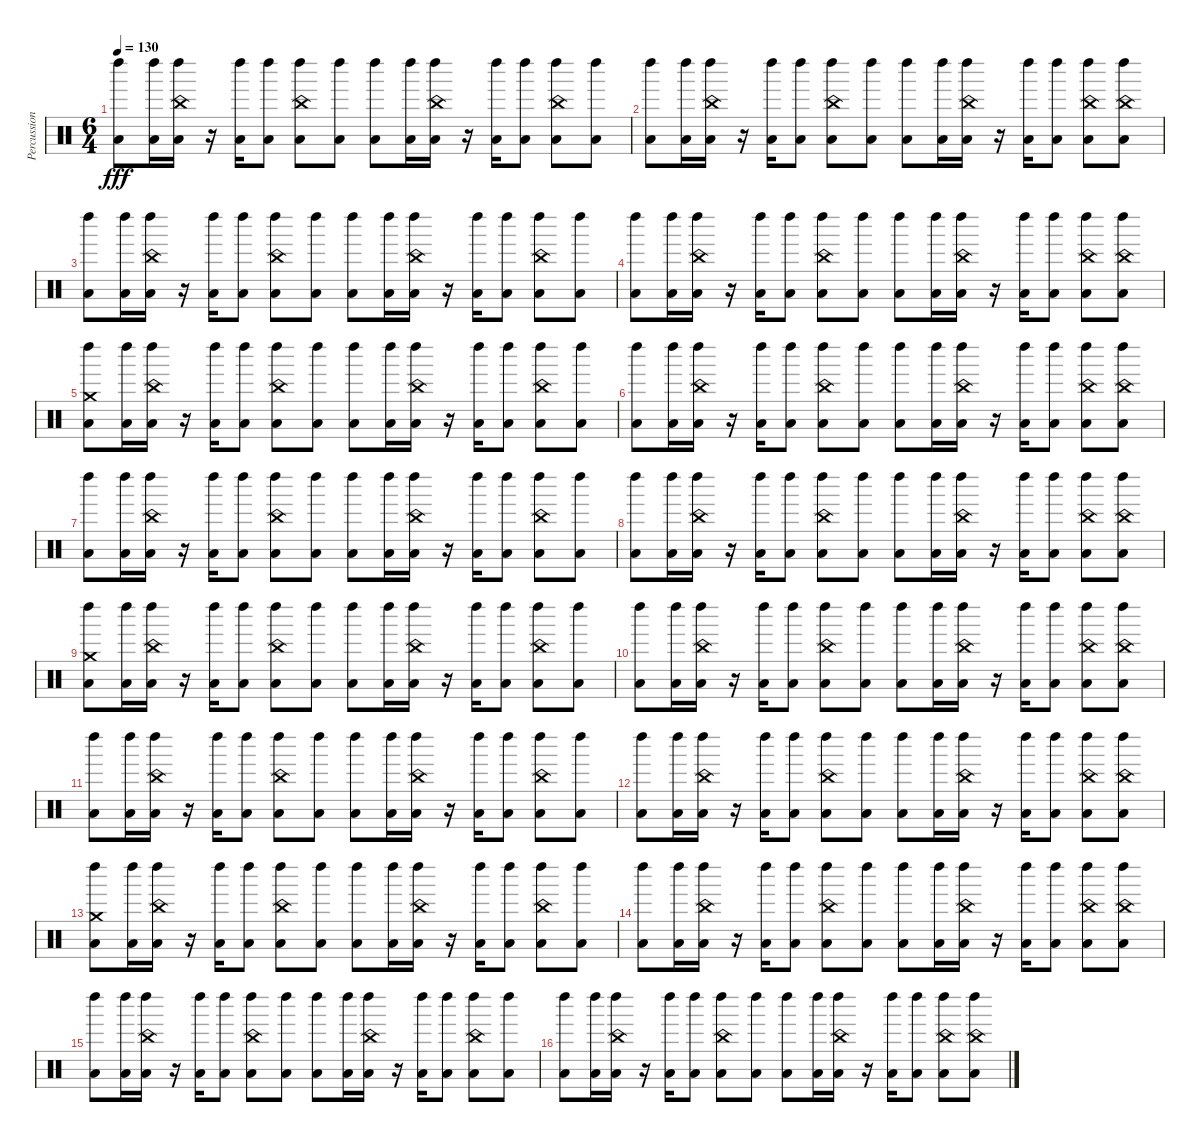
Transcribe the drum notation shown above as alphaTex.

\track ("Percussion" "Percussion") {instrument percussion}
\staff {score}
\articulation defaults
\ts (6 4)
\tempo 130
\clef neutral
\ks c
("Left Maraca (hit)" "Low Floor Tom (hit)").8{dy fff} ("Left Maraca (hit)" "Low Tom (hit)").16 ("Left Maraca (hit)" "China (hit)" "Low Tom (hit)").16 r.16 ("Left Maraca (hit)" "Low Floor Tom (hit)").16 ("Left Maraca (hit)" "Low Floor Tom (hit)").8 ("Left Maraca (hit)" "China (hit)" "Low Tom (hit)").8 ("Left Maraca (hit)" "Low Tom (hit)").8 ("Left Maraca (hit)" "Low Floor Tom (hit)").8 ("Left Maraca (hit)" "Low Tom (hit)").16 ("Left Maraca (hit)" "China (hit)" "Low Tom (hit)").16 r.16 ("Left Maraca (hit)" "Low Floor Tom (hit)").16 ("Left Maraca (hit)" "Low Floor Tom (hit)").8 ("Left Maraca (hit)" "China (hit)" "Low Tom (hit)").8 ("Left Maraca (hit)" "Low Tom (hit)").8 |
("Left Maraca (hit)" "Low Floor Tom (hit)").8 ("Left Maraca (hit)" "Low Tom (hit)").16 ("Left Maraca (hit)" "China (hit)" "Low Tom (hit)").16 r.16 ("Left Maraca (hit)" "Low Floor Tom (hit)").16 ("Left Maraca (hit)" "Low Floor Tom (hit)").8 ("Left Maraca (hit)" "China (hit)" "Low Tom (hit)").8 ("Left Maraca (hit)" "Low Tom (hit)").8 ("Left Maraca (hit)" "Low Floor Tom (hit)").8 ("Left Maraca (hit)" "Low Tom (hit)").16 ("Left Maraca (hit)" "China (hit)" "Low Tom (hit)").16 r.16 ("Left Maraca (hit)" "Low Floor Tom (hit)").16 ("Left Maraca (hit)" "Low Floor Tom (hit)").8 ("Left Maraca (hit)" "China (hit)" "Low Tom (hit)").8 ("Left Maraca (hit)" "China (hit)" "Low Tom (hit)").8 |
("Left Maraca (hit)" "Low Floor Tom (hit)").8 ("Left Maraca (hit)" "Low Tom (hit)").16 ("Left Maraca (hit)" "China (hit)" "Low Tom (hit)").16 r.16 ("Left Maraca (hit)" "Low Floor Tom (hit)").16 ("Left Maraca (hit)" "Low Floor Tom (hit)").8 ("Left Maraca (hit)" "China (hit)" "Low Tom (hit)").8 ("Left Maraca (hit)" "Low Tom (hit)").8 ("Left Maraca (hit)" "Low Floor Tom (hit)").8 ("Left Maraca (hit)" "Low Tom (hit)").16 ("Left Maraca (hit)" "China (hit)" "Low Tom (hit)").16 r.16 ("Left Maraca (hit)" "Low Floor Tom (hit)").16 ("Left Maraca (hit)" "Low Floor Tom (hit)").8 ("Left Maraca (hit)" "China (hit)" "Low Tom (hit)").8 ("Left Maraca (hit)" "Low Tom (hit)").8 |
("Left Maraca (hit)" "Low Floor Tom (hit)").8 ("Left Maraca (hit)" "Low Tom (hit)").16 ("Left Maraca (hit)" "China (hit)" "Low Tom (hit)").16 r.16 ("Left Maraca (hit)" "Low Floor Tom (hit)").16 ("Left Maraca (hit)" "Low Floor Tom (hit)").8 ("Left Maraca (hit)" "China (hit)" "Low Tom (hit)").8 ("Left Maraca (hit)" "Low Tom (hit)").8 ("Left Maraca (hit)" "Low Floor Tom (hit)").8 ("Left Maraca (hit)" "Low Tom (hit)").16 ("Left Maraca (hit)" "China (hit)" "Low Tom (hit)").16 r.16 ("Left Maraca (hit)" "Low Floor Tom (hit)").16 ("Left Maraca (hit)" "Low Floor Tom (hit)").8 ("Left Maraca (hit)" "China (hit)" "Low Tom (hit)").8 ("Left Maraca (hit)" "China (hit)" "Low Tom (hit)").8 |
("Left Maraca (hit)" "Crash medium (hit)" "Low Floor Tom (hit)").8 ("Left Maraca (hit)" "Low Tom (hit)").16 ("Left Maraca (hit)" "China (hit)" "Low Tom (hit)").16 r.16 ("Left Maraca (hit)" "Low Floor Tom (hit)").16 ("Left Maraca (hit)" "Low Floor Tom (hit)").8 ("Left Maraca (hit)" "China (hit)" "Low Tom (hit)").8 ("Left Maraca (hit)" "Low Tom (hit)").8 ("Left Maraca (hit)" "Low Floor Tom (hit)").8 ("Left Maraca (hit)" "Low Tom (hit)").16 ("Left Maraca (hit)" "China (hit)" "Low Tom (hit)").16 r.16 ("Left Maraca (hit)" "Low Floor Tom (hit)").16 ("Left Maraca (hit)" "Low Floor Tom (hit)").8 ("Left Maraca (hit)" "China (hit)" "Low Tom (hit)").8 ("Left Maraca (hit)" "Low Tom (hit)").8 |
("Left Maraca (hit)" "Low Floor Tom (hit)").8 ("Left Maraca (hit)" "Low Tom (hit)").16 ("Left Maraca (hit)" "China (hit)" "Low Tom (hit)").16 r.16 ("Left Maraca (hit)" "Low Floor Tom (hit)").16 ("Left Maraca (hit)" "Low Floor Tom (hit)").8 ("Left Maraca (hit)" "China (hit)" "Low Tom (hit)").8 ("Left Maraca (hit)" "Low Tom (hit)").8 ("Left Maraca (hit)" "Low Floor Tom (hit)").8 ("Left Maraca (hit)" "Low Tom (hit)").16 ("Left Maraca (hit)" "China (hit)" "Low Tom (hit)").16 r.16 ("Left Maraca (hit)" "Low Floor Tom (hit)").16 ("Left Maraca (hit)" "Low Floor Tom (hit)").8 ("Left Maraca (hit)" "China (hit)" "Low Tom (hit)").8 ("Left Maraca (hit)" "China (hit)" "Low Tom (hit)").8 |
("Left Maraca (hit)" "Low Floor Tom (hit)").8 ("Left Maraca (hit)" "Low Tom (hit)").16 ("Left Maraca (hit)" "China (hit)" "Low Tom (hit)").16 r.16 ("Left Maraca (hit)" "Low Floor Tom (hit)").16 ("Left Maraca (hit)" "Low Floor Tom (hit)").8 ("Left Maraca (hit)" "China (hit)" "Low Tom (hit)").8 ("Left Maraca (hit)" "Low Tom (hit)").8 ("Left Maraca (hit)" "Low Floor Tom (hit)").8 ("Left Maraca (hit)" "Low Tom (hit)").16 ("Left Maraca (hit)" "China (hit)" "Low Tom (hit)").16 r.16 ("Left Maraca (hit)" "Low Floor Tom (hit)").16 ("Left Maraca (hit)" "Low Floor Tom (hit)").8 ("Left Maraca (hit)" "China (hit)" "Low Tom (hit)").8 ("Left Maraca (hit)" "Low Tom (hit)").8 |
("Left Maraca (hit)" "Low Floor Tom (hit)").8 ("Left Maraca (hit)" "Low Tom (hit)").16 ("Left Maraca (hit)" "China (hit)" "Low Tom (hit)").16 r.16 ("Left Maraca (hit)" "Low Floor Tom (hit)").16 ("Left Maraca (hit)" "Low Floor Tom (hit)").8 ("Left Maraca (hit)" "China (hit)" "Low Tom (hit)").8 ("Left Maraca (hit)" "Low Tom (hit)").8 ("Left Maraca (hit)" "Low Floor Tom (hit)").8 ("Left Maraca (hit)" "Low Tom (hit)").16 ("Left Maraca (hit)" "China (hit)" "Low Tom (hit)").16 r.16 ("Left Maraca (hit)" "Low Floor Tom (hit)").16 ("Left Maraca (hit)" "Low Floor Tom (hit)").8 ("Left Maraca (hit)" "China (hit)" "Low Tom (hit)").8 ("Left Maraca (hit)" "China (hit)" "Low Tom (hit)").8 |
("Left Maraca (hit)" "Crash medium (hit)" "Low Floor Tom (hit)").8 ("Left Maraca (hit)" "Low Tom (hit)").16 ("Left Maraca (hit)" "China (hit)" "Low Tom (hit)").16 r.16 ("Left Maraca (hit)" "Low Floor Tom (hit)").16 ("Left Maraca (hit)" "Low Floor Tom (hit)").8 ("Left Maraca (hit)" "China (hit)" "Low Tom (hit)").8 ("Left Maraca (hit)" "Low Tom (hit)").8 ("Left Maraca (hit)" "Low Floor Tom (hit)").8 ("Left Maraca (hit)" "Low Tom (hit)").16 ("Left Maraca (hit)" "China (hit)" "Low Tom (hit)").16 r.16 ("Left Maraca (hit)" "Low Floor Tom (hit)").16 ("Left Maraca (hit)" "Low Floor Tom (hit)").8 ("Left Maraca (hit)" "China (hit)" "Low Tom (hit)").8 ("Left Maraca (hit)" "Low Tom (hit)").8 |
("Left Maraca (hit)" "Low Floor Tom (hit)").8 ("Left Maraca (hit)" "Low Tom (hit)").16 ("Left Maraca (hit)" "China (hit)" "Low Tom (hit)").16 r.16 ("Left Maraca (hit)" "Low Floor Tom (hit)").16 ("Left Maraca (hit)" "Low Floor Tom (hit)").8 ("Left Maraca (hit)" "China (hit)" "Low Tom (hit)").8 ("Left Maraca (hit)" "Low Tom (hit)").8 ("Left Maraca (hit)" "Low Floor Tom (hit)").8 ("Left Maraca (hit)" "Low Tom (hit)").16 ("Left Maraca (hit)" "China (hit)" "Low Tom (hit)").16 r.16 ("Left Maraca (hit)" "Low Floor Tom (hit)").16 ("Left Maraca (hit)" "Low Floor Tom (hit)").8 ("Left Maraca (hit)" "China (hit)" "Low Tom (hit)").8 ("Left Maraca (hit)" "China (hit)" "Low Tom (hit)").8 |
("Left Maraca (hit)" "Low Floor Tom (hit)").8 ("Left Maraca (hit)" "Low Tom (hit)").16 ("Left Maraca (hit)" "China (hit)" "Low Tom (hit)").16 r.16 ("Left Maraca (hit)" "Low Floor Tom (hit)").16 ("Left Maraca (hit)" "Low Floor Tom (hit)").8 ("Left Maraca (hit)" "China (hit)" "Low Tom (hit)").8 ("Left Maraca (hit)" "Low Tom (hit)").8 ("Left Maraca (hit)" "Low Floor Tom (hit)").8 ("Left Maraca (hit)" "Low Tom (hit)").16 ("Left Maraca (hit)" "China (hit)" "Low Tom (hit)").16 r.16 ("Left Maraca (hit)" "Low Floor Tom (hit)").16 ("Left Maraca (hit)" "Low Floor Tom (hit)").8 ("Left Maraca (hit)" "China (hit)" "Low Tom (hit)").8 ("Left Maraca (hit)" "Low Tom (hit)").8 |
("Left Maraca (hit)" "Low Floor Tom (hit)").8 ("Left Maraca (hit)" "Low Tom (hit)").16 ("Left Maraca (hit)" "China (hit)" "Low Tom (hit)").16 r.16 ("Left Maraca (hit)" "Low Floor Tom (hit)").16 ("Left Maraca (hit)" "Low Floor Tom (hit)").8 ("Left Maraca (hit)" "China (hit)" "Low Tom (hit)").8 ("Left Maraca (hit)" "Low Tom (hit)").8 ("Left Maraca (hit)" "Low Floor Tom (hit)").8 ("Left Maraca (hit)" "Low Tom (hit)").16 ("Left Maraca (hit)" "China (hit)" "Low Tom (hit)").16 r.16 ("Left Maraca (hit)" "Low Floor Tom (hit)").16 ("Left Maraca (hit)" "Low Floor Tom (hit)").8 ("Left Maraca (hit)" "China (hit)" "Low Tom (hit)").8 ("Left Maraca (hit)" "China (hit)" "Low Tom (hit)").8 |
("Left Maraca (hit)" "Crash medium (hit)" "Low Floor Tom (hit)").8 ("Left Maraca (hit)" "Low Tom (hit)").16 ("Left Maraca (hit)" "China (hit)" "Low Tom (hit)").16 r.16 ("Left Maraca (hit)" "Low Floor Tom (hit)").16 ("Left Maraca (hit)" "Low Floor Tom (hit)").8 ("Left Maraca (hit)" "China (hit)" "Low Tom (hit)").8 ("Left Maraca (hit)" "Low Tom (hit)").8 ("Left Maraca (hit)" "Low Floor Tom (hit)").8 ("Left Maraca (hit)" "Low Tom (hit)").16 ("Left Maraca (hit)" "China (hit)" "Low Tom (hit)").16 r.16 ("Left Maraca (hit)" "Low Floor Tom (hit)").16 ("Left Maraca (hit)" "Low Floor Tom (hit)").8 ("Left Maraca (hit)" "China (hit)" "Low Tom (hit)").8 ("Left Maraca (hit)" "Low Tom (hit)").8 |
("Left Maraca (hit)" "Low Floor Tom (hit)").8 ("Left Maraca (hit)" "Low Tom (hit)").16 ("Left Maraca (hit)" "China (hit)" "Low Tom (hit)").16 r.16 ("Left Maraca (hit)" "Low Floor Tom (hit)").16 ("Left Maraca (hit)" "Low Floor Tom (hit)").8 ("Left Maraca (hit)" "China (hit)" "Low Tom (hit)").8 ("Left Maraca (hit)" "Low Tom (hit)").8 ("Left Maraca (hit)" "Low Floor Tom (hit)").8 ("Left Maraca (hit)" "Low Tom (hit)").16 ("Left Maraca (hit)" "China (hit)" "Low Tom (hit)").16 r.16 ("Left Maraca (hit)" "Low Floor Tom (hit)").16 ("Left Maraca (hit)" "Low Floor Tom (hit)").8 ("Left Maraca (hit)" "China (hit)" "Low Tom (hit)").8 ("Left Maraca (hit)" "China (hit)" "Low Tom (hit)").8 |
("Left Maraca (hit)" "Low Floor Tom (hit)").8 ("Left Maraca (hit)" "Low Tom (hit)").16 ("Left Maraca (hit)" "China (hit)" "Low Tom (hit)").16 r.16 ("Left Maraca (hit)" "Low Floor Tom (hit)").16 ("Left Maraca (hit)" "Low Floor Tom (hit)").8 ("Left Maraca (hit)" "China (hit)" "Low Tom (hit)").8 ("Left Maraca (hit)" "Low Tom (hit)").8 ("Left Maraca (hit)" "Low Floor Tom (hit)").8 ("Left Maraca (hit)" "Low Tom (hit)").16 ("Left Maraca (hit)" "China (hit)" "Low Tom (hit)").16 r.16 ("Left Maraca (hit)" "Low Floor Tom (hit)").16 ("Left Maraca (hit)" "Low Floor Tom (hit)").8 ("Left Maraca (hit)" "China (hit)" "Low Tom (hit)").8 ("Left Maraca (hit)" "Low Tom (hit)").8 |
("Left Maraca (hit)" "Low Floor Tom (hit)").8 ("Left Maraca (hit)" "Low Tom (hit)").16 ("Left Maraca (hit)" "China (hit)" "Low Tom (hit)").16 r.16 ("Left Maraca (hit)" "Low Floor Tom (hit)").16 ("Left Maraca (hit)" "Low Floor Tom (hit)").8 ("Left Maraca (hit)" "China (hit)" "Low Tom (hit)").8 ("Left Maraca (hit)" "Low Tom (hit)").8 ("Left Maraca (hit)" "Low Floor Tom (hit)").8 ("Left Maraca (hit)" "Low Tom (hit)").16 ("Left Maraca (hit)" "China (hit)" "Low Tom (hit)").16 r.16 ("Left Maraca (hit)" "Low Floor Tom (hit)").16 ("Left Maraca (hit)" "Low Floor Tom (hit)").8 ("Left Maraca (hit)" "China (hit)" "Low Tom (hit)").8 ("Left Maraca (hit)" "China (hit)" "Low Tom (hit)").8
